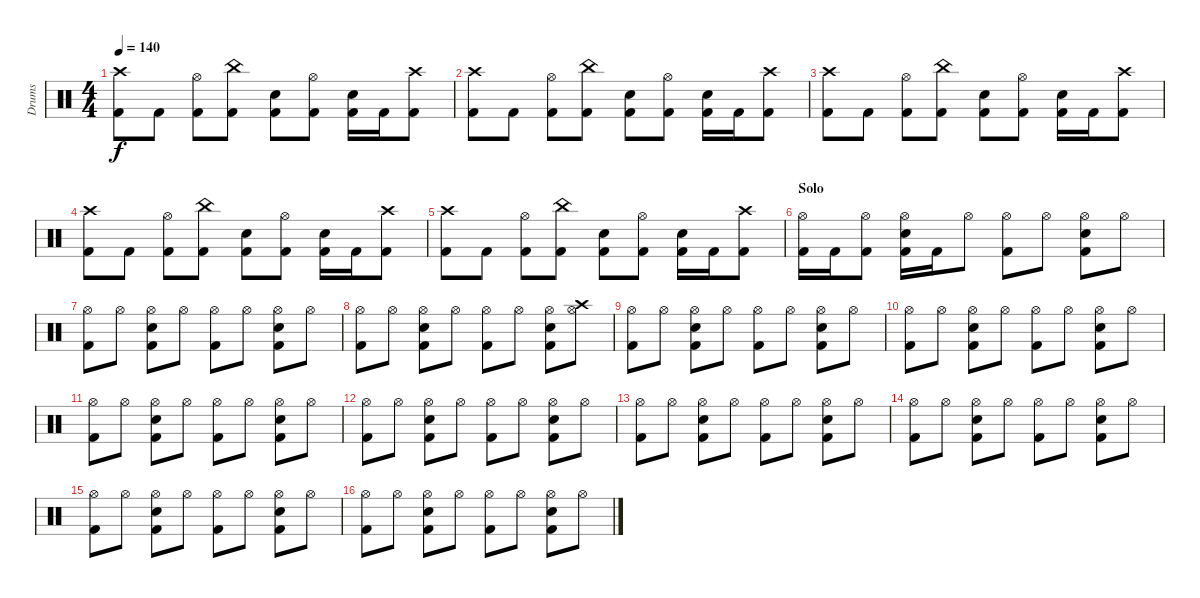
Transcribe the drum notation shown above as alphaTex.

\track ("Drums" "Drums") {instrument percussion}
\staff {score}
\articulation defaults
\ts (4 4)
\tempo 140
\clef neutral
\ks c
("Crash high (hit)" "Kick (hit) 2").8{dy f} "Kick (hit) 2".8 ("Hi-Hat (open)" "Kick (hit) 2").8 ("China (hit)" "Kick (hit) 2").8 ("Electric Snare (hit)" "Kick (hit) 2").8 ("Hi-Hat (open)" "Kick (hit) 2").8 ("Electric Snare (hit)" "Kick (hit) 2").16 "Kick (hit) 2".16 ("Crash high (hit)" "Kick (hit) 2").8 |
("Crash high (hit)" "Kick (hit) 2").8 "Kick (hit) 2".8 ("Hi-Hat (open)" "Kick (hit) 2").8 ("China (hit)" "Kick (hit) 2").8 ("Electric Snare (hit)" "Kick (hit) 2").8 ("Hi-Hat (open)" "Kick (hit) 2").8 ("Electric Snare (hit)" "Kick (hit) 2").16 "Kick (hit) 2".16 ("Crash high (hit)" "Kick (hit) 2").8 |
("Crash high (hit)" "Kick (hit) 2").8 "Kick (hit) 2".8 ("Hi-Hat (open)" "Kick (hit) 2").8 ("China (hit)" "Kick (hit) 2").8 ("Electric Snare (hit)" "Kick (hit) 2").8 ("Hi-Hat (open)" "Kick (hit) 2").8 ("Electric Snare (hit)" "Kick (hit) 2").16 "Kick (hit) 2".16 ("Crash high (hit)" "Kick (hit) 2").8 |
("Crash high (hit)" "Kick (hit) 2").8 "Kick (hit) 2".8 ("Hi-Hat (open)" "Kick (hit) 2").8 ("China (hit)" "Kick (hit) 2").8 ("Electric Snare (hit)" "Kick (hit) 2").8 ("Hi-Hat (open)" "Kick (hit) 2").8 ("Electric Snare (hit)" "Kick (hit) 2").16 "Kick (hit) 2".16 ("Crash high (hit)" "Kick (hit) 2").8 |
("Crash high (hit)" "Kick (hit) 2").8 "Kick (hit) 2".8 ("Hi-Hat (open)" "Kick (hit) 2").8 ("China (hit)" "Kick (hit) 2").8 ("Electric Snare (hit)" "Kick (hit) 2").8 ("Hi-Hat (open)" "Kick (hit) 2").8 ("Electric Snare (hit)" "Kick (hit) 2").16 "Kick (hit) 2".16 ("Crash high (hit)" "Kick (hit) 2").8 |
\section ("" "Solo")
("Hi-Hat (open)" "Kick (hit) 2").16 "Kick (hit) 2".16 ("Hi-Hat (open)" "Kick (hit) 2").8 ("Electric Snare (hit)" "Hi-Hat (open)" "Kick (hit) 2").16 "Kick (hit) 2".16 "Hi-Hat (open)".8 ("Hi-Hat (open)" "Kick (hit) 2").8 "Hi-Hat (open)".8 ("Electric Snare (hit)" "Hi-Hat (open)" "Kick (hit) 2").8 "Hi-Hat (open)".8 |
("Hi-Hat (open)" "Kick (hit) 2").8 "Hi-Hat (open)".8 ("Electric Snare (hit)" "Hi-Hat (open)" "Kick (hit) 2").8 "Hi-Hat (open)".8 ("Hi-Hat (open)" "Kick (hit) 2").8 "Hi-Hat (open)".8 ("Electric Snare (hit)" "Hi-Hat (open)" "Kick (hit) 2").8 "Hi-Hat (open)".8 |
("Hi-Hat (open)" "Kick (hit) 2").8 "Hi-Hat (open)".8 ("Electric Snare (hit)" "Hi-Hat (open)" "Kick (hit) 2").8 "Hi-Hat (open)".8 ("Hi-Hat (open)" "Kick (hit) 2").8 "Hi-Hat (open)".8 ("Electric Snare (hit)" "Hi-Hat (open)" "Kick (hit) 2").8 ("Crash high (hit)" "Hi-Hat (open)").8 |
("Hi-Hat (open)" "Kick (hit) 2").8 "Hi-Hat (open)".8 ("Electric Snare (hit)" "Hi-Hat (open)" "Kick (hit) 2").8 "Hi-Hat (open)".8 ("Hi-Hat (open)" "Kick (hit) 2").8 "Hi-Hat (open)".8 ("Electric Snare (hit)" "Hi-Hat (open)" "Kick (hit) 2").8 "Hi-Hat (open)".8 |
("Hi-Hat (open)" "Kick (hit) 2").8 "Hi-Hat (open)".8 ("Electric Snare (hit)" "Hi-Hat (open)" "Kick (hit) 2").8 "Hi-Hat (open)".8 ("Hi-Hat (open)" "Kick (hit) 2").8 "Hi-Hat (open)".8 ("Electric Snare (hit)" "Hi-Hat (open)" "Kick (hit) 2").8 "Hi-Hat (open)".8 |
("Hi-Hat (open)" "Kick (hit) 2").8 "Hi-Hat (open)".8 ("Electric Snare (hit)" "Hi-Hat (open)" "Kick (hit) 2").8 "Hi-Hat (open)".8 ("Hi-Hat (open)" "Kick (hit) 2").8 "Hi-Hat (open)".8 ("Electric Snare (hit)" "Hi-Hat (open)" "Kick (hit) 2").8 "Hi-Hat (open)".8 |
("Hi-Hat (open)" "Kick (hit) 2").8 "Hi-Hat (open)".8 ("Electric Snare (hit)" "Hi-Hat (open)" "Kick (hit) 2").8 "Hi-Hat (open)".8 ("Hi-Hat (open)" "Kick (hit) 2").8 "Hi-Hat (open)".8 ("Electric Snare (hit)" "Hi-Hat (open)" "Kick (hit) 2").8 "Hi-Hat (open)".8 |
("Hi-Hat (open)" "Kick (hit) 2").8 "Hi-Hat (open)".8 ("Electric Snare (hit)" "Hi-Hat (open)" "Kick (hit) 2").8 "Hi-Hat (open)".8 ("Hi-Hat (open)" "Kick (hit) 2").8 "Hi-Hat (open)".8 ("Electric Snare (hit)" "Hi-Hat (open)" "Kick (hit) 2").8 "Hi-Hat (open)".8 |
("Hi-Hat (open)" "Kick (hit) 2").8 "Hi-Hat (open)".8 ("Electric Snare (hit)" "Hi-Hat (open)" "Kick (hit) 2").8 "Hi-Hat (open)".8 ("Hi-Hat (open)" "Kick (hit) 2").8 "Hi-Hat (open)".8 ("Electric Snare (hit)" "Hi-Hat (open)" "Kick (hit) 2").8 "Hi-Hat (open)".8 |
("Hi-Hat (open)" "Kick (hit) 2").8 "Hi-Hat (open)".8 ("Electric Snare (hit)" "Hi-Hat (open)" "Kick (hit) 2").8 "Hi-Hat (open)".8 ("Hi-Hat (open)" "Kick (hit) 2").8 "Hi-Hat (open)".8 ("Electric Snare (hit)" "Hi-Hat (open)" "Kick (hit) 2").8 "Hi-Hat (open)".8 |
("Hi-Hat (open)" "Kick (hit) 2").8 "Hi-Hat (open)".8 ("Electric Snare (hit)" "Hi-Hat (open)" "Kick (hit) 2").8 "Hi-Hat (open)".8 ("Hi-Hat (open)" "Kick (hit) 2").8 "Hi-Hat (open)".8 ("Electric Snare (hit)" "Hi-Hat (open)" "Kick (hit) 2").8 "Hi-Hat (open)".8
